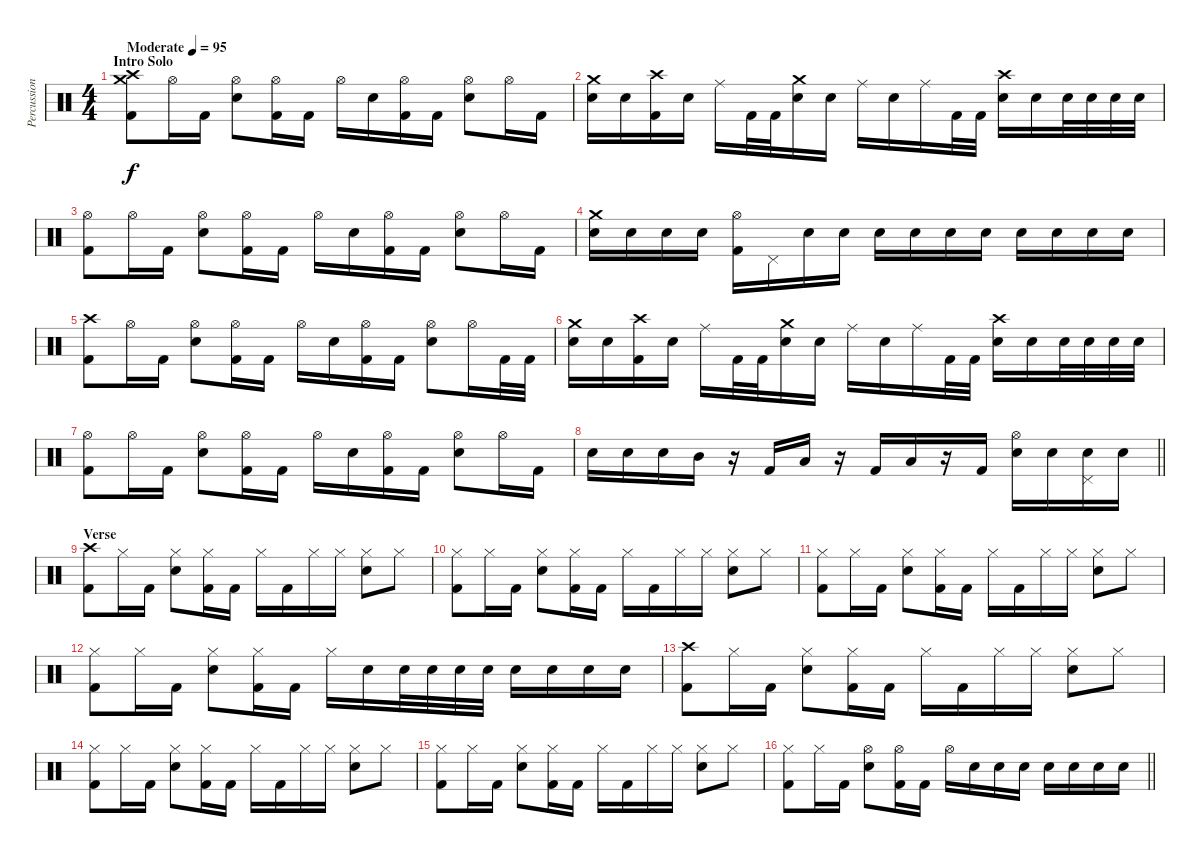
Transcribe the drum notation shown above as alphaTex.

\track ("Percussion" "Percussion") {instrument percussion}
\staff {score}
\articulation defaults
\ts (4 4)
\section ("" "Intro Solo")
\tempo (95 "Moderate")
\clef neutral
\ks c
("Crash medium (hit)" "Crash high (hit)" "Kick (hit) 2").8{dy f} "Hi-Hat (open)".16 "Kick (hit) 2".16 ("Hi-Hat (open)" "Electric Snare (hit)").8 ("Hi-Hat (open)" "Kick (hit) 2").16 "Kick (hit) 2".16 "Hi-Hat (open)".16 "Electric Snare (hit)".16 ("Hi-Hat (open)" "Kick (hit) 2").16 "Kick (hit) 2".16 ("Hi-Hat (open)" "Electric Snare (hit)").8 "Hi-Hat (open)".16 "Kick (hit) 2".16 |
("Crash medium (hit)" "Electric Snare (hit)").16 "Electric Snare (hit)".16 ("Crash high (hit)" "Kick (hit) 2").16 "Electric Snare (hit)".16 "Ride (middle)".16 "Kick (hit) 2".32 "Kick (hit) 2".32 ("Crash medium (hit)" "Electric Snare (hit)").16 "Electric Snare (hit)".16 "Ride (middle)".16 "Electric Snare (hit)".16 "Ride (middle)".16 "Kick (hit) 2".32 "Kick (hit) 2".32 ("Crash high (hit)" "Electric Snare (hit)").16 "Electric Snare (hit)".16 "Electric Snare (hit)".32 "Electric Snare (hit)".32 "Electric Snare (hit)".32 "Electric Snare (hit)".32 |
("Hi-Hat (open)" "Kick (hit) 2").8 "Hi-Hat (open)".16 "Kick (hit) 2".16 ("Hi-Hat (open)" "Electric Snare (hit)").8 ("Hi-Hat (open)" "Kick (hit) 2").16 "Kick (hit) 2".16 "Hi-Hat (open)".16 "Electric Snare (hit)".16 ("Hi-Hat (open)" "Kick (hit) 2").16 "Kick (hit) 2".16 ("Hi-Hat (open)" "Electric Snare (hit)").8 "Hi-Hat (open)".16 "Kick (hit) 2".16 |
("Crash medium (hit)" "Electric Snare (hit)").16 "Electric Snare (hit)".16 "Electric Snare (hit)".16 "Electric Snare (hit)".16 ("Hi-Hat (open)" "Kick (hit) 2").16 "Pedal Hi-Hat (hit)".16 "Electric Snare (hit)".16 "Electric Snare (hit)".16 "Electric Snare (hit)".16 "Electric Snare (hit)".16 "Electric Snare (hit)".16 "Electric Snare (hit)".16 "Electric Snare (hit)".16 "Electric Snare (hit)".16 "Electric Snare (hit)".16 "Electric Snare (hit)".16 |
("Crash high (hit)" "Kick (hit) 2").8 "Hi-Hat (open)".16 "Kick (hit) 2".16 ("Hi-Hat (open)" "Electric Snare (hit)").8 ("Hi-Hat (open)" "Kick (hit) 2").16 "Kick (hit) 2".16 "Hi-Hat (open)".16 "Electric Snare (hit)".16 ("Hi-Hat (open)" "Kick (hit) 2").16 "Kick (hit) 2".16 ("Hi-Hat (open)" "Electric Snare (hit)").8 "Hi-Hat (open)".16 "Kick (hit) 2".32 "Kick (hit) 2".32 |
("Crash medium (hit)" "Electric Snare (hit)").16 "Electric Snare (hit)".16 ("Crash high (hit)" "Kick (hit) 2").16 "Electric Snare (hit)".16 "Ride (middle)".16 "Kick (hit) 2".32 "Kick (hit) 2".32 ("Crash medium (hit)" "Electric Snare (hit)").16 "Electric Snare (hit)".16 "Ride (middle)".16 "Electric Snare (hit)".16 "Ride (middle)".16 "Kick (hit) 2".32 "Kick (hit) 2".32 ("Crash high (hit)" "Electric Snare (hit)").16 "Electric Snare (hit)".16 "Electric Snare (hit)".32 "Electric Snare (hit)".32 "Electric Snare (hit)".32 "Electric Snare (hit)".32 |
("Hi-Hat (open)" "Kick (hit) 2").8 "Hi-Hat (open)".16 "Kick (hit) 2".16 ("Hi-Hat (open)" "Electric Snare (hit)").8 ("Hi-Hat (open)" "Kick (hit) 2").16 "Kick (hit) 2".16 "Hi-Hat (open)".16 "Electric Snare (hit)".16 ("Hi-Hat (open)" "Kick (hit) 2").16 "Kick (hit) 2".16 ("Hi-Hat (open)" "Electric Snare (hit)").8 "Hi-Hat (open)".16 "Kick (hit) 2".16 |
\barLineRight lightlight "Electric Snare (hit)".16 "Electric Snare (hit)".16 "Electric Snare (hit)".16 "Mid Tom (hit)".16
r.16 "Kick (hit) 2".16 "Low Tom (hit)".16 r.16 "Kick (hit) 2".16 "Low Floor Tom (hit)".16 r.16 "Kick (hit) 2".16 ("Hi-Hat (open)" "Electric Snare (hit)").16 "Electric Snare (hit)".16 ("Pedal Hi-Hat (hit)" "Electric Snare (hit)").16 "Electric Snare (hit)".16 |
\section ("" "Verse")
("Crash high (hit)" "Kick (hit) 2").8 "Hi-Hat (closed)".16 "Kick (hit) 2".16 ("Hi-Hat (closed)" "Electric Snare (hit)").8 ("Hi-Hat (closed)" "Kick (hit) 2").16 "Kick (hit) 2".16 "Hi-Hat (closed)".16 "Kick (hit) 2".16 "Hi-Hat (closed)".16 "Hi-Hat (closed)".16 ("Hi-Hat (closed)" "Electric Snare (hit)").8 "Hi-Hat (closed)".8 |
("Hi-Hat (closed)" "Kick (hit) 2").8 "Hi-Hat (closed)".16 "Kick (hit) 2".16 ("Hi-Hat (closed)" "Electric Snare (hit)").8 ("Hi-Hat (closed)" "Kick (hit) 2").16 "Kick (hit) 2".16 "Hi-Hat (closed)".16 "Kick (hit) 2".16 "Hi-Hat (closed)".16 "Hi-Hat (closed)".16 ("Hi-Hat (closed)" "Electric Snare (hit)").8 "Hi-Hat (closed)".8 |
("Hi-Hat (closed)" "Kick (hit) 2").8 "Hi-Hat (closed)".16 "Kick (hit) 2".16 ("Hi-Hat (closed)" "Electric Snare (hit)").8 ("Hi-Hat (closed)" "Kick (hit) 2").16 "Kick (hit) 2".16 "Hi-Hat (closed)".16 "Kick (hit) 2".16 "Hi-Hat (closed)".16 "Hi-Hat (closed)".16 ("Hi-Hat (closed)" "Electric Snare (hit)").8 "Hi-Hat (closed)".8 |
("Hi-Hat (closed)" "Kick (hit) 2").8 "Hi-Hat (closed)".16 "Kick (hit) 2".16 ("Hi-Hat (closed)" "Electric Snare (hit)").8 ("Hi-Hat (closed)" "Kick (hit) 2").16 "Kick (hit) 2".16 "Hi-Hat (closed)".16 "Electric Snare (hit)".16 "Electric Snare (hit)".32 "Electric Snare (hit)".32 "Electric Snare (hit)".32 "Electric Snare (hit)".32 "Electric Snare (hit)".16 "Electric Snare (hit)".16 "Electric Snare (hit)".16 "Electric Snare (hit)".16 |
("Crash high (hit)" "Kick (hit) 2").8 "Hi-Hat (closed)".16 "Kick (hit) 2".16 ("Hi-Hat (closed)" "Electric Snare (hit)").8 ("Hi-Hat (closed)" "Kick (hit) 2").16 "Kick (hit) 2".16 "Hi-Hat (closed)".16 "Kick (hit) 2".16 "Hi-Hat (closed)".16 "Hi-Hat (closed)".16 ("Hi-Hat (closed)" "Electric Snare (hit)").8 "Hi-Hat (closed)".8 |
("Hi-Hat (closed)" "Kick (hit) 2").8 "Hi-Hat (closed)".16 "Kick (hit) 2".16 ("Hi-Hat (closed)" "Electric Snare (hit)").8 ("Hi-Hat (closed)" "Kick (hit) 2").16 "Kick (hit) 2".16 "Hi-Hat (closed)".16 "Kick (hit) 2".16 "Hi-Hat (closed)".16 "Hi-Hat (closed)".16 ("Hi-Hat (closed)" "Electric Snare (hit)").8 "Hi-Hat (closed)".8 |
("Hi-Hat (closed)" "Kick (hit) 2").8 "Hi-Hat (closed)".16 "Kick (hit) 2".16 ("Hi-Hat (closed)" "Electric Snare (hit)").8 ("Hi-Hat (closed)" "Kick (hit) 2").16 "Kick (hit) 2".16 "Hi-Hat (closed)".16 "Kick (hit) 2".16 "Hi-Hat (closed)".16 "Hi-Hat (closed)".16 ("Hi-Hat (closed)" "Electric Snare (hit)").8 "Hi-Hat (closed)".8 |
\barLineRight lightlight
("Hi-Hat (closed)" "Kick (hit) 2").8 "Hi-Hat (closed)".16 "Kick (hit) 2".16 ("Hi-Hat (open)" "Electric Snare (hit)").8 ("Hi-Hat (open)" "Kick (hit) 2").16 "Kick (hit) 2".16 "Hi-Hat (open)".16 "Electric Snare (hit)".16 "Electric Snare (hit)".16 "Electric Snare (hit)".16 "Electric Snare (hit)".16 "Electric Snare (hit)".16 "Electric Snare (hit)".16 "Electric Snare (hit)".16
